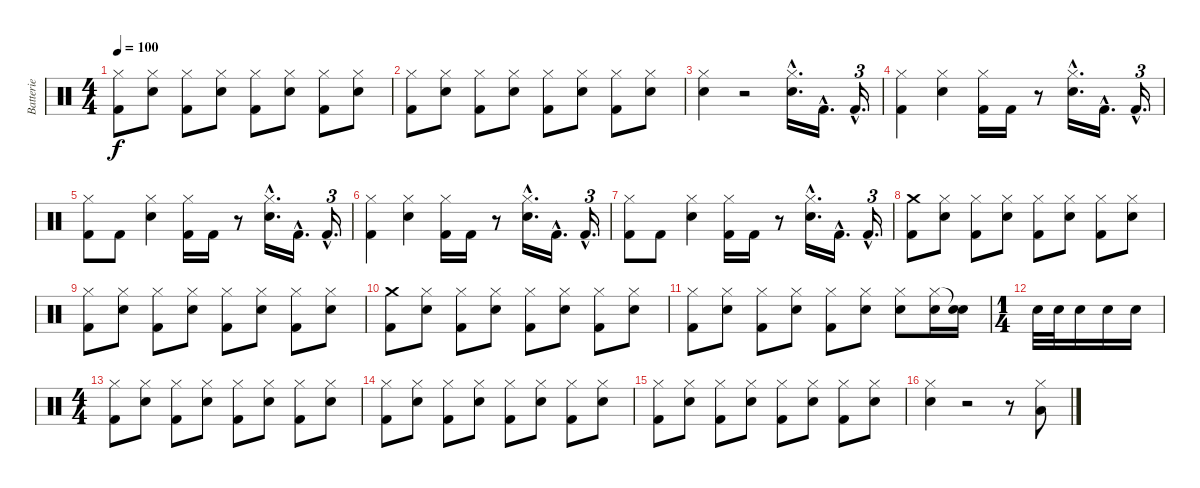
\track ("Batterie" "Batterie") {instrument percussion}
\staff {score}
\articulation defaults
\ts (4 4)
\tempo 100
\clef neutral
\ks c
("Kick (hit) 2" "Hi-Hat (closed)").8{dy f} ("Electric Snare (hit)" "Hi-Hat (closed)").8 ("Kick (hit) 2" "Hi-Hat (closed)").8 ("Electric Snare (hit)" "Hi-Hat (closed)").8 ("Kick (hit) 2" "Hi-Hat (closed)").8 ("Electric Snare (hit)" "Hi-Hat (closed)").8 ("Kick (hit) 2" "Hi-Hat (closed)").8 ("Electric Snare (hit)" "Hi-Hat (closed)").8 |
("Kick (hit) 2" "Hi-Hat (closed)").8 ("Electric Snare (hit)" "Hi-Hat (closed)").8 ("Kick (hit) 2" "Hi-Hat (closed)").8 ("Electric Snare (hit)" "Hi-Hat (closed)").8 ("Kick (hit) 2" "Hi-Hat (closed)").8 ("Electric Snare (hit)" "Hi-Hat (closed)").8 ("Kick (hit) 2" "Hi-Hat (closed)").8 ("Electric Snare (hit)" "Hi-Hat (closed)").8 |
("Electric Snare (hit)" "Hi-Hat (closed)").4 r.2 ("Electric Snare (hit)"{hac} "Hi-Hat (closed)"{hac}).16{d} "Kick (hit) 2"{hac}.16{d} "Kick (hit) 2"{hac}.16{d tu (3 2)} |
("Kick (hit) 2" "Hi-Hat (closed)").4 ("Electric Snare (hit)" "Hi-Hat (closed)").4 ("Kick (hit) 2" "Hi-Hat (closed)").16 "Kick (hit) 2".16 r.8 ("Electric Snare (hit)"{hac} "Hi-Hat (closed)"{hac}).16{d} "Kick (hit) 2"{hac}.16{d} "Kick (hit) 2"{hac}.16{d tu (3 2)} |
("Kick (hit) 2" "Hi-Hat (closed)").8 "Kick (hit) 2".8 ("Electric Snare (hit)" "Hi-Hat (closed)").4 ("Kick (hit) 2" "Hi-Hat (closed)").16 "Kick (hit) 2".16 r.8 ("Electric Snare (hit)"{hac} "Hi-Hat (closed)"{hac}).16{d} "Kick (hit) 2"{hac}.16{d} "Kick (hit) 2"{hac}.16{d tu (3 2)} |
("Kick (hit) 2" "Hi-Hat (closed)").4 ("Electric Snare (hit)" "Hi-Hat (closed)").4 ("Kick (hit) 2" "Hi-Hat (closed)").16 "Kick (hit) 2".16 r.8 ("Electric Snare (hit)"{hac} "Hi-Hat (closed)"{hac}).16{d} "Kick (hit) 2"{hac}.16{d} "Kick (hit) 2"{hac}.16{d tu (3 2)} |
("Kick (hit) 2" "Hi-Hat (closed)").8 "Kick (hit) 2".8 ("Electric Snare (hit)" "Hi-Hat (closed)").4 ("Kick (hit) 2" "Hi-Hat (closed)").16 "Kick (hit) 2".16 r.8 ("Electric Snare (hit)"{hac} "Hi-Hat (closed)"{hac}).16{d} "Kick (hit) 2"{hac}.16{d} "Kick (hit) 2"{hac}.16{d tu (3 2)} |
("Kick (hit) 2" "Crash medium (hit)").8 ("Electric Snare (hit)" "Hi-Hat (closed)").8 ("Kick (hit) 2" "Hi-Hat (closed)").8 ("Electric Snare (hit)" "Hi-Hat (closed)").8 ("Kick (hit) 2" "Hi-Hat (closed)").8 ("Electric Snare (hit)" "Hi-Hat (closed)").8 ("Kick (hit) 2" "Hi-Hat (closed)").8 ("Electric Snare (hit)" "Hi-Hat (closed)").8 |
("Kick (hit) 2" "Hi-Hat (closed)").8 ("Electric Snare (hit)" "Hi-Hat (closed)").8 ("Kick (hit) 2" "Hi-Hat (closed)").8 ("Electric Snare (hit)" "Hi-Hat (closed)").8 ("Kick (hit) 2" "Hi-Hat (closed)").8 ("Electric Snare (hit)" "Hi-Hat (closed)").8 ("Kick (hit) 2" "Hi-Hat (closed)").8 ("Electric Snare (hit)" "Hi-Hat (closed)").8 |
("Kick (hit) 2" "Crash medium (hit)").8 ("Electric Snare (hit)" "Hi-Hat (closed)").8 ("Kick (hit) 2" "Hi-Hat (closed)").8 ("Electric Snare (hit)" "Hi-Hat (closed)").8 ("Kick (hit) 2" "Hi-Hat (closed)").8 ("Electric Snare (hit)" "Hi-Hat (closed)").8 ("Kick (hit) 2" "Hi-Hat (closed)").8 ("Electric Snare (hit)" "Hi-Hat (closed)").8 |
("Kick (hit) 2" "Hi-Hat (closed)").8 ("Electric Snare (hit)" "Hi-Hat (closed)").8 ("Kick (hit) 2" "Hi-Hat (closed)").8 ("Electric Snare (hit)" "Hi-Hat (closed)").8 ("Kick (hit) 2" "Hi-Hat (closed)").8 ("Electric Snare (hit)" "Hi-Hat (closed)").8 ("Electric Snare (hit)" "Hi-Hat (closed)").8 ("Electric Snare (hit)" "Hi-Hat (closed)").16 ("Electric Snare (hit)" "Snare (hit)"{t}).16 |
\ts (1 4)
"Electric Snare (hit)".32 "Electric Snare (hit)".32 "Electric Snare (hit)".16 "Electric Snare (hit)".16 "Electric Snare (hit)".16 |
\ts (4 4)
("Kick (hit) 2" "Hi-Hat (closed)").8 ("Electric Snare (hit)" "Hi-Hat (closed)").8 ("Kick (hit) 2" "Hi-Hat (closed)").8 ("Electric Snare (hit)" "Hi-Hat (closed)").8 ("Kick (hit) 2" "Hi-Hat (closed)").8 ("Electric Snare (hit)" "Hi-Hat (closed)").8 ("Kick (hit) 2" "Hi-Hat (closed)").8 ("Electric Snare (hit)" "Hi-Hat (closed)").8 |
("Kick (hit) 2" "Hi-Hat (closed)").8 ("Electric Snare (hit)" "Hi-Hat (closed)").8 ("Kick (hit) 2" "Hi-Hat (closed)").8 ("Electric Snare (hit)" "Hi-Hat (closed)").8 ("Kick (hit) 2" "Hi-Hat (closed)").8 ("Electric Snare (hit)" "Hi-Hat (closed)").8 ("Kick (hit) 2" "Hi-Hat (closed)").8 ("Electric Snare (hit)" "Hi-Hat (closed)").8 |
("Kick (hit) 2" "Hi-Hat (closed)").8 ("Electric Snare (hit)" "Hi-Hat (closed)").8 ("Kick (hit) 2" "Hi-Hat (closed)").8 ("Electric Snare (hit)" "Hi-Hat (closed)").8 ("Kick (hit) 2" "Hi-Hat (closed)").8 ("Electric Snare (hit)" "Hi-Hat (closed)").8 ("Kick (hit) 2" "Hi-Hat (closed)").8 ("Electric Snare (hit)" "Hi-Hat (closed)").8 |
("Electric Snare (hit)" "Hi-Hat (closed)").4 r.2 r.8 ("Low Tom (hit)" "Hi-Hat (closed)").8
